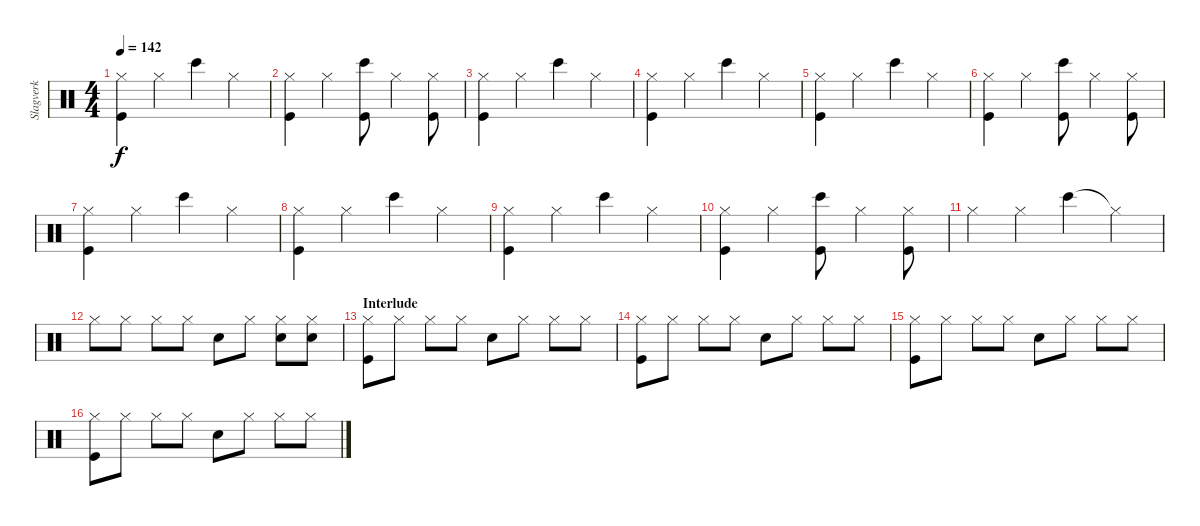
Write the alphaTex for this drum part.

\track ("Slagverk" "Slagverk") {instrument percussion}
\staff {score}
\articulation defaults
\ts (4 4)
\tempo 142
\clef neutral
\ks c
("Hi-Hat (closed)" "Kick (hit)").4{dy f} "Hi-Hat (closed)".4 "Bongo High (hit)".4 "Hi-Hat (closed)".4 |
("Hi-Hat (closed)" "Kick (hit)").4 "Hi-Hat (closed)".4 ("Bongo High (hit)" "Kick (hit)").8 "Hi-Hat (closed)".4 ("Hi-Hat (closed)" "Kick (hit)").8 |
("Hi-Hat (closed)" "Kick (hit)").4 "Hi-Hat (closed)".4 "Bongo High (hit)".4 "Hi-Hat (closed)".4 |
("Hi-Hat (closed)" "Kick (hit)").4 "Hi-Hat (closed)".4 "Bongo High (hit)".4 "Hi-Hat (closed)".4 |
("Hi-Hat (closed)" "Kick (hit)").4 "Hi-Hat (closed)".4 "Bongo High (hit)".4 "Hi-Hat (closed)".4 |
("Hi-Hat (closed)" "Kick (hit)").4 "Hi-Hat (closed)".4 ("Bongo High (hit)" "Kick (hit)").8 "Hi-Hat (closed)".4 ("Hi-Hat (closed)" "Kick (hit)").8 |
("Hi-Hat (closed)" "Kick (hit)").4 "Hi-Hat (closed)".4 "Bongo High (hit)".4 "Hi-Hat (closed)".4 |
("Hi-Hat (closed)" "Kick (hit)").4 "Hi-Hat (closed)".4 "Bongo High (hit)".4 "Hi-Hat (closed)".4 |
("Hi-Hat (closed)" "Kick (hit)").4 "Hi-Hat (closed)".4 "Bongo High (hit)".4 "Hi-Hat (closed)".4 |
("Hi-Hat (closed)" "Kick (hit)").4 "Hi-Hat (closed)".4 ("Bongo High (hit)" "Kick (hit)").8 "Hi-Hat (closed)".4 ("Hi-Hat (closed)" "Kick (hit)").8 |
"Hi-Hat (closed)".4 "Hi-Hat (closed)".4 "Bongo High (hit)".4 "Hi-Hat (closed)"{t}.4 |
"Hi-Hat (closed)".8 "Hi-Hat (closed)".8 "Hi-Hat (closed)".8 "Hi-Hat (closed)".8 "Snare (hit) 2".8 "Hi-Hat (closed)".8 ("Hi-Hat (closed)" "Snare (hit) 2").8 ("Hi-Hat (closed)" "Snare (hit) 2").8 |
\section ("" "Interlude")
("Hi-Hat (closed)" "Kick (hit)").8 "Hi-Hat (closed)".8 "Hi-Hat (closed)".8 "Hi-Hat (closed)".8 "Snare (hit) 2".8 "Hi-Hat (closed)".8 "Hi-Hat (closed)".8 "Hi-Hat (closed)".8 |
("Hi-Hat (closed)" "Kick (hit)").8 "Hi-Hat (closed)".8 "Hi-Hat (closed)".8 "Hi-Hat (closed)".8 "Snare (hit) 2".8 "Hi-Hat (closed)".8 "Hi-Hat (closed)".8 "Hi-Hat (closed)".8 |
("Hi-Hat (closed)" "Kick (hit)").8 "Hi-Hat (closed)".8 "Hi-Hat (closed)".8 "Hi-Hat (closed)".8 "Snare (hit) 2".8 "Hi-Hat (closed)".8 "Hi-Hat (closed)".8 "Hi-Hat (closed)".8 |
("Hi-Hat (closed)" "Kick (hit)").8 "Hi-Hat (closed)".8 "Hi-Hat (closed)".8 "Hi-Hat (closed)".8 "Snare (hit) 2".8 "Hi-Hat (closed)".8 "Hi-Hat (closed)".8 "Hi-Hat (closed)".8
